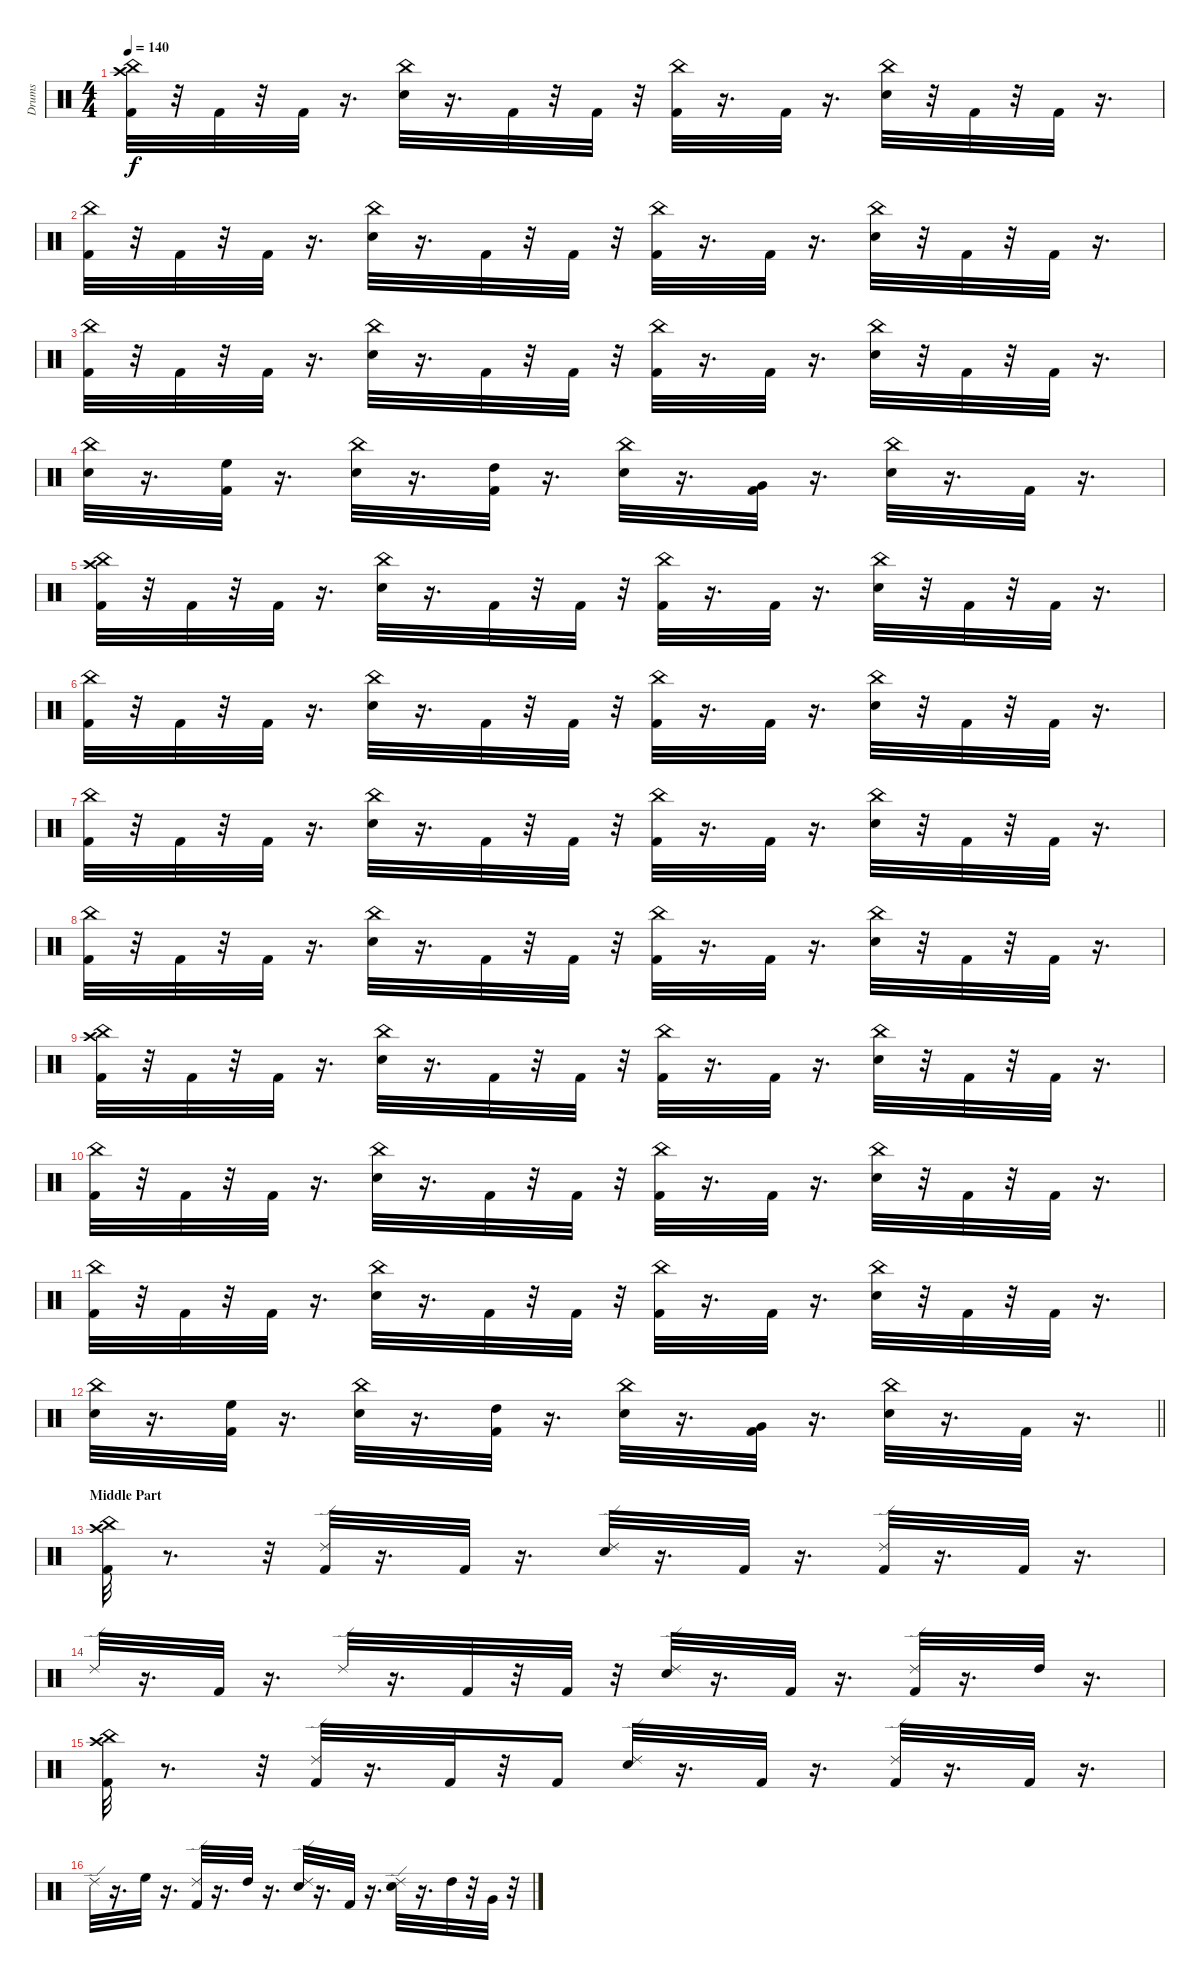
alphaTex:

\track ("Drums" "Drums") {instrument percussion}
\staff {score}
\articulation defaults
\ts (4 4)
\tempo 140
\clef neutral
\ks c
("Kick (hit) 2" "Crash high (hit)" "China (hit)").32{dy f} r.32 "Kick (hit) 2".32 r.32 "Kick (hit) 2".32 r.16{d} ("Snare (hit) 2" "China (hit)").32 r.16{d} "Kick (hit) 2".32 r.32 "Kick (hit) 2".32 r.32 ("Kick (hit) 2" "China (hit)").32 r.16{d} "Kick (hit) 2".32 r.16{d} ("Snare (hit) 2" "China (hit)").32 r.32 "Kick (hit) 2".32 r.32 "Kick (hit) 2".32 r.16{d} |
("Kick (hit) 2" "China (hit)").32 r.32 "Kick (hit) 2".32 r.32 "Kick (hit) 2".32 r.16{d} ("Snare (hit) 2" "China (hit)").32 r.16{d} "Kick (hit) 2".32 r.32 "Kick (hit) 2".32 r.32 ("Kick (hit) 2" "China (hit)").32 r.16{d} "Kick (hit) 2".32 r.16{d} ("Snare (hit) 2" "China (hit)").32 r.32 "Kick (hit) 2".32 r.32 "Kick (hit) 2".32 r.16{d} |
("Kick (hit) 2" "China (hit)").32 r.32 "Kick (hit) 2".32 r.32 "Kick (hit) 2".32 r.16{d} ("Snare (hit) 2" "China (hit)").32 r.16{d} "Kick (hit) 2".32 r.32 "Kick (hit) 2".32 r.32 ("Kick (hit) 2" "China (hit)").32 r.16{d} "Kick (hit) 2".32 r.16{d} ("Snare (hit) 2" "China (hit)").32 r.32 "Kick (hit) 2".32 r.32 "Kick (hit) 2".32 r.16{d} |
("Snare (hit) 2" "China (hit)").32 r.16{d} ("Kick (hit) 2" "High Floor Tom (hit)").32 r.16{d} ("Snare (hit) 2" "China (hit)").32 r.16{d} ("Kick (hit) 2" "High Tom (hit)").32 r.16{d} ("Snare (hit) 2" "China (hit)").32 r.16{d} ("Kick (hit) 2" "Very Low Tom (hit)").32 r.16{d} ("Snare (hit) 2" "China (hit)").32 r.16{d} "Kick (hit) 2".32 r.16{d} |
("Kick (hit) 2" "Crash high (hit)" "China (hit)").32 r.32 "Kick (hit) 2".32 r.32 "Kick (hit) 2".32 r.16{d} ("Snare (hit) 2" "China (hit)").32 r.16{d} "Kick (hit) 2".32 r.32 "Kick (hit) 2".32 r.32 ("Kick (hit) 2" "China (hit)").32 r.16{d} "Kick (hit) 2".32 r.16{d} ("Snare (hit) 2" "China (hit)").32 r.32 "Kick (hit) 2".32 r.32 "Kick (hit) 2".32 r.16{d} |
("Kick (hit) 2" "China (hit)").32 r.32 "Kick (hit) 2".32 r.32 "Kick (hit) 2".32 r.16{d} ("Snare (hit) 2" "China (hit)").32 r.16{d} "Kick (hit) 2".32 r.32 "Kick (hit) 2".32 r.32 ("Kick (hit) 2" "China (hit)").32 r.16{d} "Kick (hit) 2".32 r.16{d} ("Snare (hit) 2" "China (hit)").32 r.32 "Kick (hit) 2".32 r.32 "Kick (hit) 2".32 r.16{d} |
("Kick (hit) 2" "China (hit)").32 r.32 "Kick (hit) 2".32 r.32 "Kick (hit) 2".32 r.16{d} ("Snare (hit) 2" "China (hit)").32 r.16{d} "Kick (hit) 2".32 r.32 "Kick (hit) 2".32 r.32 ("Kick (hit) 2" "China (hit)").32 r.16{d} "Kick (hit) 2".32 r.16{d} ("Snare (hit) 2" "China (hit)").32 r.32 "Kick (hit) 2".32 r.32 "Kick (hit) 2".32 r.16{d} |
("Kick (hit) 2" "China (hit)").32 r.32 "Kick (hit) 2".32 r.32 "Kick (hit) 2".32 r.16{d} ("Snare (hit) 2" "China (hit)").32 r.16{d} "Kick (hit) 2".32 r.32 "Kick (hit) 2".32 r.32 ("Kick (hit) 2" "China (hit)").32 r.16{d} "Kick (hit) 2".32 r.16{d} ("Snare (hit) 2" "China (hit)").32 r.32 "Kick (hit) 2".32 r.32 "Kick (hit) 2".32 r.16{d} |
("Kick (hit) 2" "Crash high (hit)" "China (hit)").32 r.32 "Kick (hit) 2".32 r.32 "Kick (hit) 2".32 r.16{d} ("Snare (hit) 2" "China (hit)").32 r.16{d} "Kick (hit) 2".32 r.32 "Kick (hit) 2".32 r.32 ("Kick (hit) 2" "China (hit)").32 r.16{d} "Kick (hit) 2".32 r.16{d} ("Snare (hit) 2" "China (hit)").32 r.32 "Kick (hit) 2".32 r.32 "Kick (hit) 2".32 r.16{d} |
("Kick (hit) 2" "China (hit)").32 r.32 "Kick (hit) 2".32 r.32 "Kick (hit) 2".32 r.16{d} ("Snare (hit) 2" "China (hit)").32 r.16{d} "Kick (hit) 2".32 r.32 "Kick (hit) 2".32 r.32 ("Kick (hit) 2" "China (hit)").32 r.16{d} "Kick (hit) 2".32 r.16{d} ("Snare (hit) 2" "China (hit)").32 r.32 "Kick (hit) 2".32 r.32 "Kick (hit) 2".32 r.16{d} |
("Kick (hit) 2" "China (hit)").32 r.32 "Kick (hit) 2".32 r.32 "Kick (hit) 2".32 r.16{d} ("Snare (hit) 2" "China (hit)").32 r.16{d} "Kick (hit) 2".32 r.32 "Kick (hit) 2".32 r.32 ("Kick (hit) 2" "China (hit)").32 r.16{d} "Kick (hit) 2".32 r.16{d} ("Snare (hit) 2" "China (hit)").32 r.32 "Kick (hit) 2".32 r.32 "Kick (hit) 2".32 r.16{d} |
\barLineRight lightlight
("Snare (hit) 2" "China (hit)").32 r.16{d} ("Kick (hit) 2" "High Floor Tom (hit)").32 r.16{d} ("Snare (hit) 2" "China (hit)").32 r.16{d} ("Kick (hit) 2" "High Tom (hit)").32 r.16{d} ("Snare (hit) 2" "China (hit)").32 r.16{d} ("Kick (hit) 2" "Very Low Tom (hit)").32 r.16{d} ("Snare (hit) 2" "China (hit)").32 r.16{d} "Kick (hit) 2".32 r.16{d} |
\section ("" "Middle Part")
("Kick (hit) 2" "Crash high (hit)" "China (hit)").32 r.8{d} r.32 ("Kick (hit) 2" "Ride (edge) 2").32 r.16{d} "Kick (hit) 2".32 r.16{d} ("Snare (hit) 2" "Ride (edge) 2").32 r.16{d} "Kick (hit) 2".32 r.16{d} ("Kick (hit) 2" "Ride (edge) 2").32 r.16{d} "Kick (hit) 2".32 r.16{d} |
"Ride (edge) 2".32 r.16{d} "Kick (hit) 2".32 r.16{d} "Ride (edge) 2".32 r.16{d} "Kick (hit) 2".32 r.32 "Kick (hit) 2".32 r.32 ("Snare (hit) 2" "Ride (edge) 2").32 r.16{d} "Kick (hit) 2".32 r.16{d} ("Kick (hit) 2" "Ride (edge) 2").32 r.16{d} "High Tom (hit)".32 r.16{d} |
("Kick (hit) 2" "Crash high (hit)" "China (hit)").32 r.8{d} r.32 ("Kick (hit) 2" "Ride (edge) 2").32 r.16{d} "Kick (hit) 2".32 r.32 "Kick (hit) 2".16 ("Snare (hit) 2" "Ride (edge) 2").32 r.16{d} "Kick (hit) 2".32 r.16{d} ("Kick (hit) 2" "Ride (edge) 2").32 r.16{d} "Kick (hit) 2".32 r.16{d} |
"Ride (edge) 2".32 r.16{d} "High Floor Tom (hit)".32 r.16{d} ("Kick (hit) 2" "Ride (edge) 2").32 r.16{d} "High Tom (hit)".32 r.16{d} ("Snare (hit) 2" "Ride (edge) 2").32 r.16{d} "Kick (hit) 2".32 r.16{d} ("Snare (hit) 2" "Ride (edge) 2").32 r.16{d} "High Tom (hit)".32 r.32 "Very Low Tom (hit)".32 r.32
